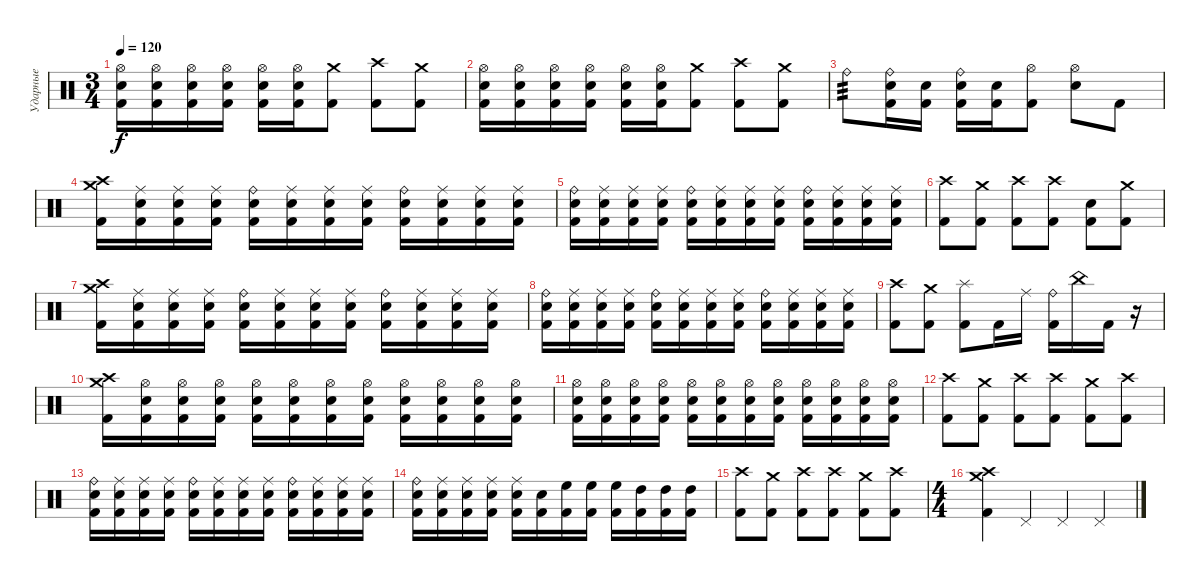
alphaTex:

\track ("Ударные" "Ударные") {instrument percussion}
\staff {score}
\articulation defaults
\ts (3 4)
\tempo 120
\clef neutral
\ks c
("Hi-Hat (open)" "Electric Snare (hit)" "Kick (hit) 2").16{dy f} ("Hi-Hat (open)" "Electric Snare (hit)" "Kick (hit) 2").16 ("Hi-Hat (open)" "Electric Snare (hit)" "Kick (hit) 2").16 ("Hi-Hat (open)" "Electric Snare (hit)" "Kick (hit) 2").16 ("Hi-Hat (open)" "Electric Snare (hit)" "Kick (hit) 2").16 ("Hi-Hat (open)" "Electric Snare (hit)" "Kick (hit) 2").16 ("Crash medium (hit)" "Kick (hit) 2").8 ("Crash high (hit)" "Kick (hit) 2").8 ("Crash medium (hit)" "Kick (hit) 2").8 |
("Hi-Hat (open)" "Electric Snare (hit)" "Kick (hit) 2").16 ("Hi-Hat (open)" "Electric Snare (hit)" "Kick (hit) 2").16 ("Hi-Hat (open)" "Electric Snare (hit)" "Kick (hit) 2").16 ("Hi-Hat (open)" "Electric Snare (hit)" "Kick (hit) 2").16 ("Hi-Hat (open)" "Electric Snare (hit)" "Kick (hit) 2").16 ("Hi-Hat (open)" "Electric Snare (hit)" "Kick (hit) 2").16 ("Crash medium (hit)" "Kick (hit) 2").8 ("Crash high (hit)" "Kick (hit) 2").8 ("Crash medium (hit)" "Kick (hit) 2").8 |
"Ride (bell)".8{tp 3} ("Ride (bell)" "Electric Snare (hit)" "Kick (hit) 2").16 ("Electric Snare (hit)" "Kick (hit) 2").16 ("Ride (bell)" "Electric Snare (hit)" "Kick (hit) 2").16 ("Electric Snare (hit)" "Kick (hit) 2").16 ("Hi-Hat (open)" "Kick (hit) 2").8 ("Hi-Hat (open)" "Electric Snare (hit)").8 "Kick (hit) 2".8 |
("Crash high (hit)" "Crash medium (hit)" "Kick (hit) 2").16 ("Ride (middle)" "Electric Snare (hit)" "Kick (hit) 2").16 ("Ride (middle)" "Electric Snare (hit)" "Kick (hit) 2").16 ("Ride (middle)" "Electric Snare (hit)" "Kick (hit) 2").16 ("Ride (bell)" "Electric Snare (hit)" "Kick (hit) 2").16 ("Ride (middle)" "Electric Snare (hit)" "Kick (hit) 2").16 ("Ride (middle)" "Electric Snare (hit)" "Kick (hit) 2").16 ("Ride (middle)" "Electric Snare (hit)" "Kick (hit) 2").16 ("Ride (bell)" "Electric Snare (hit)" "Kick (hit) 2").16 ("Ride (middle)" "Electric Snare (hit)" "Kick (hit) 2").16 ("Ride (middle)" "Electric Snare (hit)" "Kick (hit) 2").16 ("Ride (middle)" "Electric Snare (hit)" "Kick (hit) 2").16 |
("Ride (bell)" "Electric Snare (hit)" "Kick (hit) 2").16 ("Ride (middle)" "Electric Snare (hit)" "Kick (hit) 2").16 ("Ride (middle)" "Electric Snare (hit)" "Kick (hit) 2").16 ("Ride (middle)" "Electric Snare (hit)" "Kick (hit) 2").16 ("Ride (bell)" "Electric Snare (hit)" "Kick (hit) 2").16 ("Ride (middle)" "Electric Snare (hit)" "Kick (hit) 2").16 ("Ride (middle)" "Electric Snare (hit)" "Kick (hit) 2").16 ("Ride (middle)" "Electric Snare (hit)" "Kick (hit) 2").16 ("Ride (bell)" "Electric Snare (hit)" "Kick (hit) 2").16 ("Ride (middle)" "Electric Snare (hit)" "Kick (hit) 2").16 ("Ride (middle)" "Electric Snare (hit)" "Kick (hit) 2").16 ("Ride (middle)" "Electric Snare (hit)" "Kick (hit) 2").16 |
("Crash high (hit)" "Kick (hit) 2").8 ("Crash medium (hit)" "Kick (hit) 2").8 ("Crash high (hit)" "Kick (hit) 2").8 ("Crash high (hit)" "Kick (hit) 2").8 ("Electric Snare (hit)" "Kick (hit) 2").8 ("Crash medium (hit)" "Kick (hit) 2").8 |
("Crash medium (hit)" "Crash high (hit)" "Kick (hit) 2").16 ("Ride (middle)" "Electric Snare (hit)" "Kick (hit) 2").16 ("Ride (middle)" "Electric Snare (hit)" "Kick (hit) 2").16 ("Ride (middle)" "Electric Snare (hit)" "Kick (hit) 2").16 ("Ride (bell)" "Electric Snare (hit)" "Kick (hit) 2").16 ("Ride (middle)" "Electric Snare (hit)" "Kick (hit) 2").16 ("Ride (middle)" "Electric Snare (hit)" "Kick (hit) 2").16 ("Ride (middle)" "Electric Snare (hit)" "Kick (hit) 2").16 ("Ride (bell)" "Electric Snare (hit)" "Kick (hit) 2").16 ("Ride (middle)" "Electric Snare (hit)" "Kick (hit) 2").16 ("Ride (middle)" "Electric Snare (hit)" "Kick (hit) 2").16 ("Ride (middle)" "Electric Snare (hit)" "Kick (hit) 2").16 |
("Ride (bell)" "Electric Snare (hit)" "Kick (hit) 2").16 ("Ride (middle)" "Electric Snare (hit)" "Kick (hit) 2").16 ("Ride (middle)" "Electric Snare (hit)" "Kick (hit) 2").16 ("Ride (middle)" "Electric Snare (hit)" "Kick (hit) 2").16 ("Ride (bell)" "Electric Snare (hit)" "Kick (hit) 2").16 ("Ride (middle)" "Electric Snare (hit)" "Kick (hit) 2").16 ("Ride (middle)" "Electric Snare (hit)" "Kick (hit) 2").16 ("Ride (middle)" "Electric Snare (hit)" "Kick (hit) 2").16 ("Ride (bell)" "Electric Snare (hit)" "Kick (hit) 2").16 ("Ride (middle)" "Electric Snare (hit)" "Kick (hit) 2").16 ("Ride (middle)" "Electric Snare (hit)" "Kick (hit) 2").16 ("Ride (middle)" "Electric Snare (hit)" "Kick (hit) 2").16 |
("Crash high (hit)" "Kick (hit) 2").8 ("Crash medium (hit)" "Kick (hit) 2").8 ("Splash (hit)" "Kick (hit) 2").8 "Kick (hit) 2".16 "Ride (middle)".16 ("Ride (bell)" "Kick (hit) 2").16 "China (hit)".16 "Kick (hit) 2".16 r.16 |
("Crash high (hit)" "Crash medium (hit)" "Kick (hit) 2").16 ("Hi-Hat (open)" "Electric Snare (hit)" "Kick (hit) 2").16 ("Hi-Hat (open)" "Electric Snare (hit)" "Kick (hit) 2").16 ("Hi-Hat (open)" "Electric Snare (hit)" "Kick (hit) 2").16 ("Hi-Hat (open)" "Electric Snare (hit)" "Kick (hit) 2").16 ("Hi-Hat (open)" "Electric Snare (hit)" "Kick (hit) 2").16 ("Hi-Hat (open)" "Electric Snare (hit)" "Kick (hit) 2").16 ("Hi-Hat (open)" "Electric Snare (hit)" "Kick (hit) 2").16 ("Hi-Hat (open)" "Electric Snare (hit)" "Kick (hit) 2").16 ("Hi-Hat (open)" "Electric Snare (hit)" "Kick (hit) 2").16 ("Hi-Hat (open)" "Electric Snare (hit)" "Kick (hit) 2").16 ("Hi-Hat (open)" "Electric Snare (hit)" "Kick (hit) 2").16 |
("Hi-Hat (open)" "Electric Snare (hit)" "Kick (hit) 2").16 ("Hi-Hat (open)" "Electric Snare (hit)" "Kick (hit) 2").16 ("Hi-Hat (open)" "Electric Snare (hit)" "Kick (hit) 2").16 ("Hi-Hat (open)" "Electric Snare (hit)" "Kick (hit) 2").16 ("Hi-Hat (open)" "Electric Snare (hit)" "Kick (hit) 2").16 ("Hi-Hat (open)" "Electric Snare (hit)" "Kick (hit) 2").16 ("Hi-Hat (open)" "Electric Snare (hit)" "Kick (hit) 2").16 ("Hi-Hat (open)" "Electric Snare (hit)" "Kick (hit) 2").16 ("Hi-Hat (open)" "Electric Snare (hit)" "Kick (hit) 2").16 ("Hi-Hat (open)" "Electric Snare (hit)" "Kick (hit) 2").16 ("Hi-Hat (open)" "Electric Snare (hit)" "Kick (hit) 2").16 ("Hi-Hat (open)" "Electric Snare (hit)" "Kick (hit) 2").16 |
("Crash high (hit)" "Kick (hit) 2").8 ("Crash medium (hit)" "Kick (hit) 2").8 ("Crash high (hit)" "Kick (hit) 2").8 ("Crash high (hit)" "Kick (hit) 2").8 ("Crash medium (hit)" "Kick (hit) 2").8 ("Crash high (hit)" "Kick (hit) 2").8 |
("Ride (bell)" "Electric Snare (hit)" "Kick (hit) 2").16 ("Ride (middle)" "Electric Snare (hit)" "Kick (hit) 2").16 ("Ride (middle)" "Electric Snare (hit)" "Kick (hit) 2").16 ("Ride (middle)" "Electric Snare (hit)" "Kick (hit) 2").16 ("Ride (bell)" "Electric Snare (hit)" "Kick (hit) 2").16 ("Ride (middle)" "Electric Snare (hit)" "Kick (hit) 2").16 ("Ride (middle)" "Electric Snare (hit)" "Kick (hit) 2").16 ("Ride (middle)" "Electric Snare (hit)" "Kick (hit) 2").16 ("Ride (bell)" "Electric Snare (hit)" "Kick (hit) 2").16 ("Ride (middle)" "Electric Snare (hit)" "Kick (hit) 2").16 ("Ride (middle)" "Electric Snare (hit)" "Kick (hit) 2").16 ("Ride (middle)" "Electric Snare (hit)" "Kick (hit) 2").16 |
("Ride (bell)" "Electric Snare (hit)" "Kick (hit) 2").16 ("Ride (middle)" "Electric Snare (hit)" "Kick (hit) 2").16 ("Ride (middle)" "Electric Snare (hit)" "Kick (hit) 2").16 ("Ride (middle)" "Electric Snare (hit)" "Kick (hit) 2").16 ("Ride (middle)" "Electric Snare (hit)" "Kick (hit) 2").16 ("Electric Snare (hit)" "Kick (hit) 2").16 ("High Floor Tom (hit)" "Kick (hit) 2").16 ("High Floor Tom (hit)" "Kick (hit) 2").16 ("High Floor Tom (hit)" "Kick (hit) 2").16 ("High Tom (hit)" "Kick (hit) 2").16 ("High Tom (hit)" "Kick (hit) 2").16 ("High Tom (hit)" "Kick (hit) 2").16 |
("Crash high (hit)" "Kick (hit) 2").8 ("Crash medium (hit)" "Kick (hit) 2").8 ("Crash high (hit)" "Kick (hit) 2").8 ("Crash high (hit)" "Kick (hit) 2").8 ("Crash medium (hit)" "Kick (hit) 2").8 ("Crash high (hit)" "Kick (hit) 2").8 |
\ts (4 4)
("Crash high (hit)" "Crash medium (hit)" "Kick (hit) 2").4 "Pedal Hi-Hat (hit)".4 "Pedal Hi-Hat (hit)".4 "Pedal Hi-Hat (hit)".4
